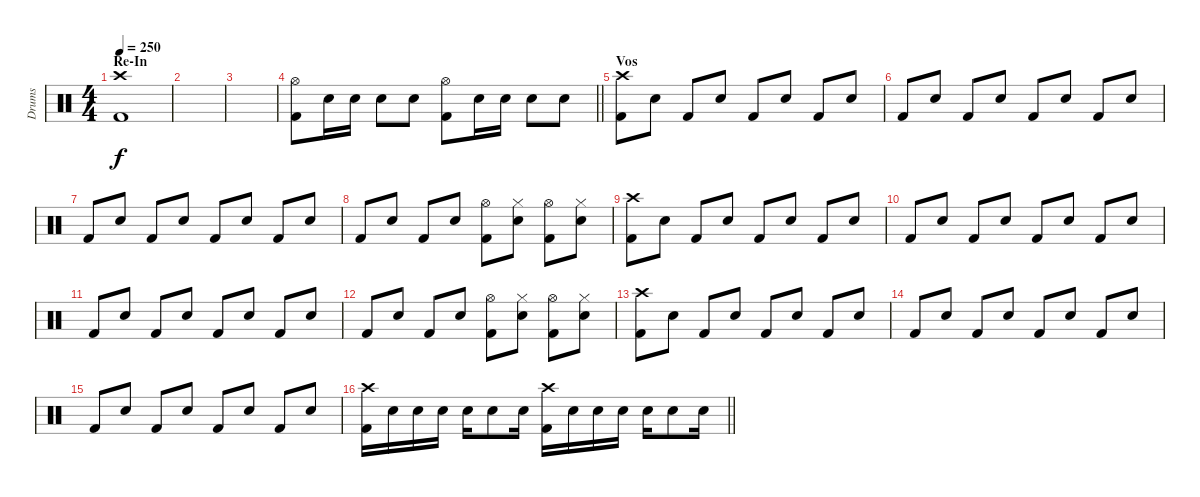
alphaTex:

\track ("Drums" "Drums") {instrument percussion}
\staff {score}
\articulation defaults
\ts (4 4)
\section ("" "Re-In")
\tempo 250
\clef neutral
\ks c
("Crash high (hit)" "Kick (hit) 2").1{dy f} |
|
|
\barLineRight lightlight
("Hi-Hat (open)" "Kick (hit) 2").8 "Snare (hit) 2".16 "Snare (hit) 2".16 "Snare (hit) 2".8 "Snare (hit) 2".8 ("Hi-Hat (open)" "Kick (hit) 2").8 "Snare (hit) 2".16 "Snare (hit) 2".16 "Snare (hit) 2".8 "Snare (hit) 2".8 |
\section ("" "Vos")
("Crash high (hit)" "Kick (hit) 2").8 "Snare (hit) 2".8 "Kick (hit) 2".8 "Snare (hit) 2".8 "Kick (hit) 2".8 "Snare (hit) 2".8 "Kick (hit) 2".8 "Snare (hit) 2".8 |
"Kick (hit) 2".8 "Snare (hit) 2".8 "Kick (hit) 2".8 "Snare (hit) 2".8 "Kick (hit) 2".8 "Snare (hit) 2".8 "Kick (hit) 2".8 "Snare (hit) 2".8 |
"Kick (hit) 2".8 "Snare (hit) 2".8 "Kick (hit) 2".8 "Snare (hit) 2".8 "Kick (hit) 2".8 "Snare (hit) 2".8 "Kick (hit) 2".8 "Snare (hit) 2".8 |
"Kick (hit) 2".8 "Snare (hit) 2".8 "Kick (hit) 2".8 "Snare (hit) 2".8 ("Hi-Hat (open)" "Kick (hit) 2").8 ("Hi-Hat (closed)" "Snare (hit) 2").8 ("Hi-Hat (open)" "Kick (hit) 2").8 ("Hi-Hat (closed)" "Snare (hit) 2").8 |
("Crash high (hit)" "Kick (hit) 2").8 "Snare (hit) 2".8 "Kick (hit) 2".8 "Snare (hit) 2".8 "Kick (hit) 2".8 "Snare (hit) 2".8 "Kick (hit) 2".8 "Snare (hit) 2".8 |
"Kick (hit) 2".8 "Snare (hit) 2".8 "Kick (hit) 2".8 "Snare (hit) 2".8 "Kick (hit) 2".8 "Snare (hit) 2".8 "Kick (hit) 2".8 "Snare (hit) 2".8 |
"Kick (hit) 2".8 "Snare (hit) 2".8 "Kick (hit) 2".8 "Snare (hit) 2".8 "Kick (hit) 2".8 "Snare (hit) 2".8 "Kick (hit) 2".8 "Snare (hit) 2".8 |
"Kick (hit) 2".8 "Snare (hit) 2".8 "Kick (hit) 2".8 "Snare (hit) 2".8 ("Hi-Hat (open)" "Kick (hit) 2").8 ("Hi-Hat (closed)" "Snare (hit) 2").8 ("Hi-Hat (open)" "Kick (hit) 2").8 ("Hi-Hat (closed)" "Snare (hit) 2").8 |
("Crash high (hit)" "Kick (hit) 2").8 "Snare (hit) 2".8 "Kick (hit) 2".8 "Snare (hit) 2".8 "Kick (hit) 2".8 "Snare (hit) 2".8 "Kick (hit) 2".8 "Snare (hit) 2".8 |
"Kick (hit) 2".8 "Snare (hit) 2".8 "Kick (hit) 2".8 "Snare (hit) 2".8 "Kick (hit) 2".8 "Snare (hit) 2".8 "Kick (hit) 2".8 "Snare (hit) 2".8 |
"Kick (hit) 2".8 "Snare (hit) 2".8 "Kick (hit) 2".8 "Snare (hit) 2".8 "Kick (hit) 2".8 "Snare (hit) 2".8 "Kick (hit) 2".8 "Snare (hit) 2".8 |
\barLineRight lightlight
("Crash high (hit)" "Kick (hit) 2").16 "Snare (hit) 2".16 "Snare (hit) 2".16 "Snare (hit) 2".16 "Snare (hit) 2".16 "Snare (hit) 2".8 "Snare (hit) 2".16 ("Crash high (hit)" "Kick (hit) 2").16 "Snare (hit) 2".16 "Snare (hit) 2".16 "Snare (hit) 2".16 "Snare (hit) 2".16 "Snare (hit) 2".8 "Snare (hit) 2".16
